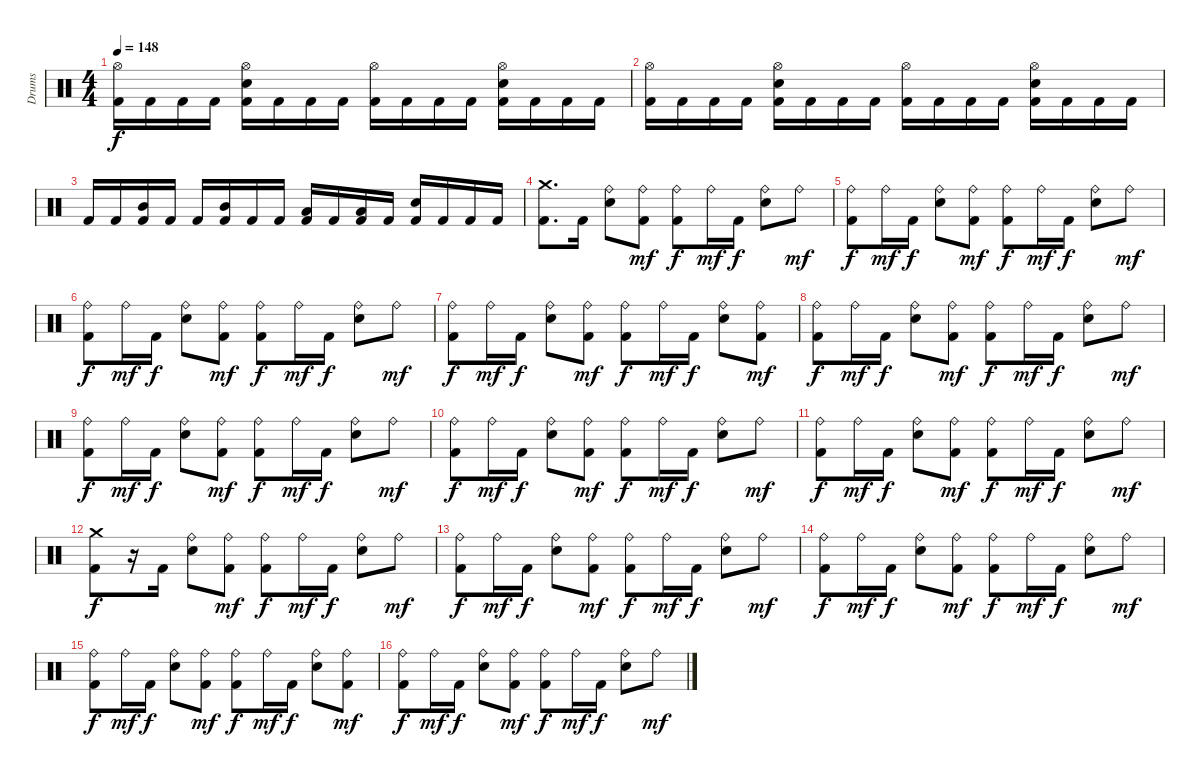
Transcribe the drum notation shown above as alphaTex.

\track ("Drums" "Drums") {instrument percussion}
\staff {score}
\articulation defaults
\ts (4 4)
\tempo 148
\clef neutral
\ks c
("Hi-Hat (open)" "Kick (hit) 2").16{dy f} "Kick (hit) 2".16 "Kick (hit) 2".16 "Kick (hit) 2".16 ("Hi-Hat (open)" "Snare (hit) 2" "Kick (hit) 2").16 "Kick (hit) 2".16 "Kick (hit) 2".16 "Kick (hit) 2".16 ("Hi-Hat (open)" "Kick (hit) 2").16 "Kick (hit) 2".16 "Kick (hit) 2".16 "Kick (hit) 2".16 ("Hi-Hat (open)" "Snare (hit) 2" "Kick (hit) 2").16 "Kick (hit) 2".16 "Kick (hit) 2".16 "Kick (hit) 2".16 |
("Hi-Hat (open)" "Kick (hit) 2").16 "Kick (hit) 2".16 "Kick (hit) 2".16 "Kick (hit) 2".16 ("Hi-Hat (open)" "Snare (hit) 2" "Kick (hit) 2").16 "Kick (hit) 2".16 "Kick (hit) 2".16 "Kick (hit) 2".16 ("Hi-Hat (open)" "Kick (hit) 2").16 "Kick (hit) 2".16 "Kick (hit) 2".16 "Kick (hit) 2".16 ("Hi-Hat (open)" "Snare (hit) 2" "Kick (hit) 2").16 "Kick (hit) 2".16 "Kick (hit) 2".16 "Kick (hit) 2".16 |
"Kick (hit) 2".16 "Kick (hit) 2".16 ("Mid Tom (hit)" "Kick (hit) 2").16 "Kick (hit) 2".16 "Kick (hit) 2".16 ("Mid Tom (hit)" "Kick (hit) 2").16 "Kick (hit) 2".16 "Kick (hit) 2".16 ("Low Tom (hit)" "Kick (hit) 2").16 "Kick (hit) 2".16 ("Low Tom (hit)" "Kick (hit) 2").16 "Kick (hit) 2".16 ("Snare (hit) 2" "Kick (hit) 2").16 "Kick (hit) 2".16 "Kick (hit) 2".16 "Kick (hit) 2".16 |
("Crash medium (hit)" "Kick (hit) 2").8{d} "Kick (hit) 2".16 ("Ride (bell)" "Snare (hit) 2").8 ("Ride (bell)" "Kick (hit) 2").8{dy mf} ("Ride (bell)" "Kick (hit) 2").8{dy f} "Ride (bell)".16{dy mf} "Kick (hit) 2".16{dy f} ("Ride (bell)" "Snare (hit) 2").8 "Ride (bell)".8{dy mf} |
("Ride (bell)" "Kick (hit) 2").8{dy f} "Ride (bell)".16{dy mf} "Kick (hit) 2".16{dy f} ("Ride (bell)" "Snare (hit) 2").8 ("Ride (bell)" "Kick (hit) 2").8{dy mf} ("Ride (bell)" "Kick (hit) 2").8{dy f} "Ride (bell)".16{dy mf} "Kick (hit) 2".16{dy f} ("Ride (bell)" "Snare (hit) 2").8 "Ride (bell)".8{dy mf} |
("Ride (bell)" "Kick (hit) 2").8{dy f} "Ride (bell)".16{dy mf} "Kick (hit) 2".16{dy f} ("Ride (bell)" "Snare (hit) 2").8 ("Ride (bell)" "Kick (hit) 2").8{dy mf} ("Ride (bell)" "Kick (hit) 2").8{dy f} "Ride (bell)".16{dy mf} "Kick (hit) 2".16{dy f} ("Ride (bell)" "Snare (hit) 2").8 "Ride (bell)".8{dy mf} |
("Ride (bell)" "Kick (hit) 2").8{dy f} "Ride (bell)".16{dy mf} "Kick (hit) 2".16{dy f} ("Ride (bell)" "Snare (hit) 2").8 ("Ride (bell)" "Kick (hit) 2").8{dy mf} ("Ride (bell)" "Kick (hit) 2").8{dy f} "Ride (bell)".16{dy mf} "Kick (hit) 2".16{dy f} ("Ride (bell)" "Snare (hit) 2").8 ("Ride (bell)" "Kick (hit) 2").8{dy mf} |
("Ride (bell)" "Kick (hit) 2").8{dy f} "Ride (bell)".16{dy mf} "Kick (hit) 2".16{dy f} ("Ride (bell)" "Snare (hit) 2").8 ("Ride (bell)" "Kick (hit) 2").8{dy mf} ("Ride (bell)" "Kick (hit) 2").8{dy f} "Ride (bell)".16{dy mf} "Kick (hit) 2".16{dy f} ("Ride (bell)" "Snare (hit) 2").8 "Ride (bell)".8{dy mf} |
("Ride (bell)" "Kick (hit) 2").8{dy f} "Ride (bell)".16{dy mf} "Kick (hit) 2".16{dy f} ("Ride (bell)" "Snare (hit) 2").8 ("Ride (bell)" "Kick (hit) 2").8{dy mf} ("Ride (bell)" "Kick (hit) 2").8{dy f} "Ride (bell)".16{dy mf} "Kick (hit) 2".16{dy f} ("Ride (bell)" "Snare (hit) 2").8 "Ride (bell)".8{dy mf} |
("Ride (bell)" "Kick (hit) 2").8{dy f} "Ride (bell)".16{dy mf} "Kick (hit) 2".16{dy f} ("Ride (bell)" "Snare (hit) 2").8 ("Ride (bell)" "Kick (hit) 2").8{dy mf} ("Ride (bell)" "Kick (hit) 2").8{dy f} "Ride (bell)".16{dy mf} "Kick (hit) 2".16{dy f} ("Ride (bell)" "Snare (hit) 2").8 "Ride (bell)".8{dy mf} |
("Ride (bell)" "Kick (hit) 2").8{dy f} "Ride (bell)".16{dy mf} "Kick (hit) 2".16{dy f} ("Ride (bell)" "Snare (hit) 2").8 ("Ride (bell)" "Kick (hit) 2").8{dy mf} ("Ride (bell)" "Kick (hit) 2").8{dy f} "Ride (bell)".16{dy mf} "Kick (hit) 2".16{dy f} ("Ride (bell)" "Snare (hit) 2").8 "Ride (bell)".8{dy mf} |
("Crash medium (hit)" "Kick (hit) 2").8{dy f} r.16 "Kick (hit) 2".16 ("Ride (bell)" "Snare (hit) 2").8 ("Ride (bell)" "Kick (hit) 2").8{dy mf} ("Ride (bell)" "Kick (hit) 2").8{dy f} "Ride (bell)".16{dy mf} "Kick (hit) 2".16{dy f} ("Ride (bell)" "Snare (hit) 2").8 "Ride (bell)".8{dy mf} |
("Ride (bell)" "Kick (hit) 2").8{dy f} "Ride (bell)".16{dy mf} "Kick (hit) 2".16{dy f} ("Ride (bell)" "Snare (hit) 2").8 ("Ride (bell)" "Kick (hit) 2").8{dy mf} ("Ride (bell)" "Kick (hit) 2").8{dy f} "Ride (bell)".16{dy mf} "Kick (hit) 2".16{dy f} ("Ride (bell)" "Snare (hit) 2").8 "Ride (bell)".8{dy mf} |
("Ride (bell)" "Kick (hit) 2").8{dy f} "Ride (bell)".16{dy mf} "Kick (hit) 2".16{dy f} ("Ride (bell)" "Snare (hit) 2").8 ("Ride (bell)" "Kick (hit) 2").8{dy mf} ("Ride (bell)" "Kick (hit) 2").8{dy f} "Ride (bell)".16{dy mf} "Kick (hit) 2".16{dy f} ("Ride (bell)" "Snare (hit) 2").8 "Ride (bell)".8{dy mf} |
("Ride (bell)" "Kick (hit) 2").8{dy f} "Ride (bell)".16{dy mf} "Kick (hit) 2".16{dy f} ("Ride (bell)" "Snare (hit) 2").8 ("Ride (bell)" "Kick (hit) 2").8{dy mf} ("Ride (bell)" "Kick (hit) 2").8{dy f} "Ride (bell)".16{dy mf} "Kick (hit) 2".16{dy f} ("Ride (bell)" "Snare (hit) 2").8 ("Ride (bell)" "Kick (hit) 2").8{dy mf} |
("Ride (bell)" "Kick (hit) 2").8{dy f} "Ride (bell)".16{dy mf} "Kick (hit) 2".16{dy f} ("Ride (bell)" "Snare (hit) 2").8 ("Ride (bell)" "Kick (hit) 2").8{dy mf} ("Ride (bell)" "Kick (hit) 2").8{dy f} "Ride (bell)".16{dy mf} "Kick (hit) 2".16{dy f} ("Ride (bell)" "Snare (hit) 2").8 "Ride (bell)".8{dy mf}
